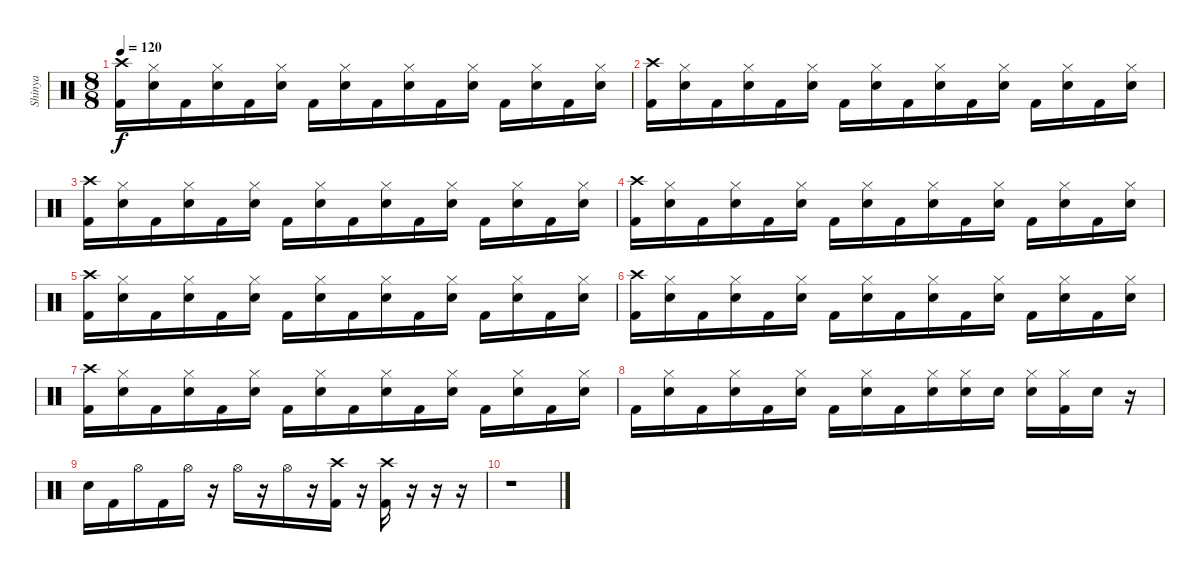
\track ("Shinya" "Shinya") {instrument percussion}
\staff {score}
\articulation defaults
\ts (8 8)
\tempo 120
\clef neutral
\ks c
("Crash high (hit)" "Kick (hit) 2").16{dy f} ("Hi-Hat (closed)" "Snare (hit) 2").16 "Kick (hit) 2".16 ("Hi-Hat (closed)" "Snare (hit) 2").16 "Kick (hit) 2".16 ("Hi-Hat (closed)" "Snare (hit) 2").16 "Kick (hit) 2".16 ("Hi-Hat (closed)" "Snare (hit) 2").16 "Kick (hit) 2".16 ("Hi-Hat (closed)" "Snare (hit) 2").16 "Kick (hit) 2".16 ("Hi-Hat (closed)" "Snare (hit) 2").16 "Kick (hit) 2".16 ("Hi-Hat (closed)" "Snare (hit) 2").16 "Kick (hit) 2".16 ("Hi-Hat (closed)" "Snare (hit) 2").16 |
("Crash high (hit)" "Kick (hit) 2").16 ("Hi-Hat (closed)" "Snare (hit) 2").16 "Kick (hit) 2".16 ("Hi-Hat (closed)" "Snare (hit) 2").16 "Kick (hit) 2".16 ("Hi-Hat (closed)" "Snare (hit) 2").16 "Kick (hit) 2".16 ("Hi-Hat (closed)" "Snare (hit) 2").16 "Kick (hit) 2".16 ("Hi-Hat (closed)" "Snare (hit) 2").16 "Kick (hit) 2".16 ("Hi-Hat (closed)" "Snare (hit) 2").16 "Kick (hit) 2".16 ("Hi-Hat (closed)" "Snare (hit) 2").16 "Kick (hit) 2".16 ("Hi-Hat (closed)" "Snare (hit) 2").16 |
("Crash high (hit)" "Kick (hit) 2").16 ("Hi-Hat (closed)" "Snare (hit) 2").16 "Kick (hit) 2".16 ("Hi-Hat (closed)" "Snare (hit) 2").16 "Kick (hit) 2".16 ("Hi-Hat (closed)" "Snare (hit) 2").16 "Kick (hit) 2".16 ("Hi-Hat (closed)" "Snare (hit) 2").16 "Kick (hit) 2".16 ("Hi-Hat (closed)" "Snare (hit) 2").16 "Kick (hit) 2".16 ("Hi-Hat (closed)" "Snare (hit) 2").16 "Kick (hit) 2".16 ("Hi-Hat (closed)" "Snare (hit) 2").16 "Kick (hit) 2".16 ("Hi-Hat (closed)" "Snare (hit) 2").16 |
("Crash high (hit)" "Kick (hit) 2").16 ("Hi-Hat (closed)" "Snare (hit) 2").16 "Kick (hit) 2".16 ("Hi-Hat (closed)" "Snare (hit) 2").16 "Kick (hit) 2".16 ("Hi-Hat (closed)" "Snare (hit) 2").16 "Kick (hit) 2".16 ("Hi-Hat (closed)" "Snare (hit) 2").16 "Kick (hit) 2".16 ("Hi-Hat (closed)" "Snare (hit) 2").16 "Kick (hit) 2".16 ("Hi-Hat (closed)" "Snare (hit) 2").16 "Kick (hit) 2".16 ("Hi-Hat (closed)" "Snare (hit) 2").16 "Kick (hit) 2".16 ("Hi-Hat (closed)" "Snare (hit) 2").16 |
("Crash high (hit)" "Kick (hit) 2").16 ("Hi-Hat (closed)" "Snare (hit) 2").16 "Kick (hit) 2".16 ("Hi-Hat (closed)" "Snare (hit) 2").16 "Kick (hit) 2".16 ("Hi-Hat (closed)" "Snare (hit) 2").16 "Kick (hit) 2".16 ("Hi-Hat (closed)" "Snare (hit) 2").16 "Kick (hit) 2".16 ("Hi-Hat (closed)" "Snare (hit) 2").16 "Kick (hit) 2".16 ("Hi-Hat (closed)" "Snare (hit) 2").16 "Kick (hit) 2".16 ("Hi-Hat (closed)" "Snare (hit) 2").16 "Kick (hit) 2".16 ("Hi-Hat (closed)" "Snare (hit) 2").16 |
("Crash high (hit)" "Kick (hit) 2").16 ("Hi-Hat (closed)" "Snare (hit) 2").16 "Kick (hit) 2".16 ("Hi-Hat (closed)" "Snare (hit) 2").16 "Kick (hit) 2".16 ("Hi-Hat (closed)" "Snare (hit) 2").16 "Kick (hit) 2".16 ("Hi-Hat (closed)" "Snare (hit) 2").16 "Kick (hit) 2".16 ("Hi-Hat (closed)" "Snare (hit) 2").16 "Kick (hit) 2".16 ("Hi-Hat (closed)" "Snare (hit) 2").16 "Kick (hit) 2".16 ("Hi-Hat (closed)" "Snare (hit) 2").16 "Kick (hit) 2".16 ("Hi-Hat (closed)" "Snare (hit) 2").16 |
("Crash high (hit)" "Kick (hit) 2").16 ("Hi-Hat (closed)" "Snare (hit) 2").16 "Kick (hit) 2".16 ("Hi-Hat (closed)" "Snare (hit) 2").16 "Kick (hit) 2".16 ("Hi-Hat (closed)" "Snare (hit) 2").16 "Kick (hit) 2".16 ("Hi-Hat (closed)" "Snare (hit) 2").16 "Kick (hit) 2".16 ("Hi-Hat (closed)" "Snare (hit) 2").16 "Kick (hit) 2".16 ("Hi-Hat (closed)" "Snare (hit) 2").16 "Kick (hit) 2".16 ("Hi-Hat (closed)" "Snare (hit) 2").16 "Kick (hit) 2".16 ("Hi-Hat (closed)" "Snare (hit) 2").16 |
"Kick (hit) 2".16 ("Hi-Hat (closed)" "Snare (hit) 2").16 "Kick (hit) 2".16 ("Hi-Hat (closed)" "Snare (hit) 2").16 "Kick (hit) 2".16 ("Hi-Hat (closed)" "Snare (hit) 2").16 "Kick (hit) 2".16 ("Hi-Hat (closed)" "Snare (hit) 2").16 "Kick (hit) 2".16 ("Hi-Hat (closed)" "Snare (hit) 2").16 ("Hi-Hat (closed)" "Snare (hit) 2").16 "Snare (hit) 2".16 ("Hi-Hat (closed)" "Snare (hit) 2").16 ("Hi-Hat (closed)" "Kick (hit) 2").16 "Snare (hit) 2".16 r.16 |
"Snare (hit) 2".16 "Kick (hit) 2".16 "Hi-Hat (open)".16 "Kick (hit) 2".16 "Hi-Hat (open)".16 r.16 "Hi-Hat (open)".16 r.16 "Hi-Hat (open)".16 r.16 ("Crash high (hit)" "Kick (hit) 2").16 r.16 ("Crash high (hit)" "Kick (hit) 2").16 r.16 r.16 r.16 |
r.1
